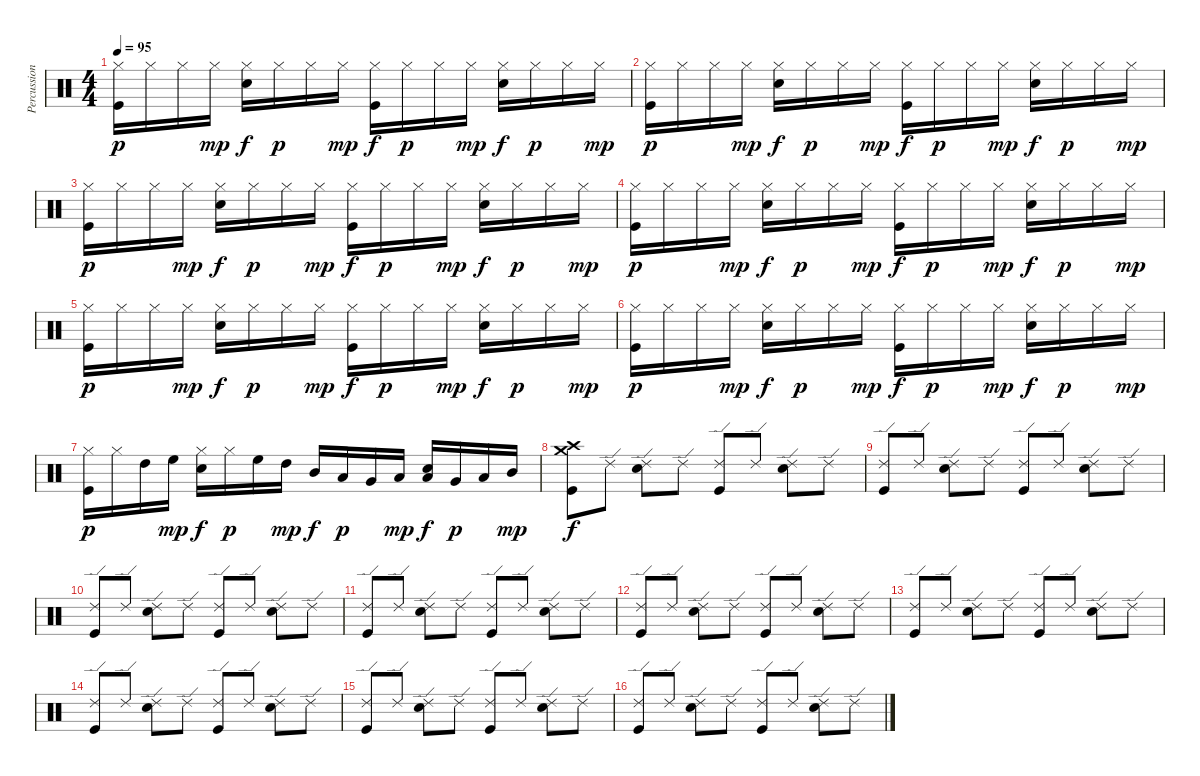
\track ("Percussion" "Percussion") {instrument percussion}
\staff {score}
\articulation defaults
\ts (4 4)
\tempo 95
\clef neutral
\ks c
("Hi-Hat (closed)" "Kick (hit)").16{dy p} "Hi-Hat (closed)".16 "Hi-Hat (closed)".16 "Hi-Hat (closed)".16{dy mp} ("Hi-Hat (closed)" "Snare (hit) 2").16{dy f} "Hi-Hat (closed)".16{dy p} "Hi-Hat (closed)".16 "Hi-Hat (closed)".16{dy mp} ("Hi-Hat (closed)" "Kick (hit)").16{dy f} "Hi-Hat (closed)".16{dy p} "Hi-Hat (closed)".16 "Hi-Hat (closed)".16{dy mp} ("Hi-Hat (closed)" "Snare (hit) 2").16{dy f} "Hi-Hat (closed)".16{dy p} "Hi-Hat (closed)".16 "Hi-Hat (closed)".16{dy mp} |
("Hi-Hat (closed)" "Kick (hit)").16{dy p} "Hi-Hat (closed)".16 "Hi-Hat (closed)".16 "Hi-Hat (closed)".16{dy mp} ("Hi-Hat (closed)" "Snare (hit) 2").16{dy f} "Hi-Hat (closed)".16{dy p} "Hi-Hat (closed)".16 "Hi-Hat (closed)".16{dy mp} ("Hi-Hat (closed)" "Kick (hit)").16{dy f} "Hi-Hat (closed)".16{dy p} "Hi-Hat (closed)".16 "Hi-Hat (closed)".16{dy mp} ("Hi-Hat (closed)" "Snare (hit) 2").16{dy f} "Hi-Hat (closed)".16{dy p} "Hi-Hat (closed)".16 "Hi-Hat (closed)".16{dy mp} |
("Hi-Hat (closed)" "Kick (hit)").16{dy p} "Hi-Hat (closed)".16 "Hi-Hat (closed)".16 "Hi-Hat (closed)".16{dy mp} ("Hi-Hat (closed)" "Snare (hit) 2").16{dy f} "Hi-Hat (closed)".16{dy p} "Hi-Hat (closed)".16 "Hi-Hat (closed)".16{dy mp} ("Hi-Hat (closed)" "Kick (hit)").16{dy f} "Hi-Hat (closed)".16{dy p} "Hi-Hat (closed)".16 "Hi-Hat (closed)".16{dy mp} ("Hi-Hat (closed)" "Snare (hit) 2").16{dy f} "Hi-Hat (closed)".16{dy p} "Hi-Hat (closed)".16 "Hi-Hat (closed)".16{dy mp} |
("Hi-Hat (closed)" "Kick (hit)").16{dy p} "Hi-Hat (closed)".16 "Hi-Hat (closed)".16 "Hi-Hat (closed)".16{dy mp} ("Hi-Hat (closed)" "Snare (hit) 2").16{dy f} "Hi-Hat (closed)".16{dy p} "Hi-Hat (closed)".16 "Hi-Hat (closed)".16{dy mp} ("Hi-Hat (closed)" "Kick (hit)").16{dy f} "Hi-Hat (closed)".16{dy p} "Hi-Hat (closed)".16 "Hi-Hat (closed)".16{dy mp} ("Hi-Hat (closed)" "Snare (hit) 2").16{dy f} "Hi-Hat (closed)".16{dy p} "Hi-Hat (closed)".16 "Hi-Hat (closed)".16{dy mp} |
("Hi-Hat (closed)" "Kick (hit)").16{dy p} "Hi-Hat (closed)".16 "Hi-Hat (closed)".16 "Hi-Hat (closed)".16{dy mp} ("Hi-Hat (closed)" "Snare (hit) 2").16{dy f} "Hi-Hat (closed)".16{dy p} "Hi-Hat (closed)".16 "Hi-Hat (closed)".16{dy mp} ("Hi-Hat (closed)" "Kick (hit)").16{dy f} "Hi-Hat (closed)".16{dy p} "Hi-Hat (closed)".16 "Hi-Hat (closed)".16{dy mp} ("Hi-Hat (closed)" "Snare (hit) 2").16{dy f} "Hi-Hat (closed)".16{dy p} "Hi-Hat (closed)".16 "Hi-Hat (closed)".16{dy mp} |
("Hi-Hat (closed)" "Kick (hit)").16{dy p} "Hi-Hat (closed)".16 "Hi-Hat (closed)".16 "Hi-Hat (closed)".16{dy mp} ("Hi-Hat (closed)" "Snare (hit) 2").16{dy f} "Hi-Hat (closed)".16{dy p} "Hi-Hat (closed)".16 "Hi-Hat (closed)".16{dy mp} ("Hi-Hat (closed)" "Kick (hit)").16{dy f} "Hi-Hat (closed)".16{dy p} "Hi-Hat (closed)".16 "Hi-Hat (closed)".16{dy mp} ("Hi-Hat (closed)" "Snare (hit) 2").16{dy f} "Hi-Hat (closed)".16{dy p} "Hi-Hat (closed)".16 "Hi-Hat (closed)".16{dy mp} |
("Hi-Hat (closed)" "Kick (hit)").16{dy p} "Hi-Hat (closed)".16 "High Tom (hit)".16 "High Floor Tom (hit)".16{dy mp} ("Hi-Hat (closed)" "Snare (hit) 2").16{dy f} "Hi-Hat (closed)".16{dy p} "High Floor Tom (hit)".16 "High Tom (hit)".16{dy mp} "Mid Tom (hit)".16{dy f} "Low Tom (hit)".16{dy p} "Very Low Tom (hit)".16 "Low Floor Tom (hit)".16{dy mp} ("Low Floor Tom (hit)" "Snare (hit) 2").16{dy f} "Very Low Tom (hit)".16{dy p} "Low Tom (hit)".16 "Mid Tom (hit)".16{dy mp} |
("Crash medium (hit)" "Crash high (hit)" "Kick (hit)").8{dy f} "Ride (edge) 2".8 ("Ride (edge) 2" "Electric Snare (hit)").8 "Ride (edge) 2".8 ("Ride (edge) 2" "Kick (hit)").8 "Ride (edge) 2".8 ("Ride (edge) 2" "Electric Snare (hit)").8 "Ride (edge) 2".8 |
("Ride (edge) 2" "Kick (hit)").8 "Ride (edge) 2".8 ("Ride (edge) 2" "Electric Snare (hit)").8 "Ride (edge) 2".8 ("Ride (edge) 2" "Kick (hit)").8 "Ride (edge) 2".8 ("Ride (edge) 2" "Electric Snare (hit)").8 "Ride (edge) 2".8 |
("Ride (edge) 2" "Kick (hit)").8 "Ride (edge) 2".8 ("Ride (edge) 2" "Electric Snare (hit)").8 "Ride (edge) 2".8 ("Ride (edge) 2" "Kick (hit)").8 "Ride (edge) 2".8 ("Ride (edge) 2" "Electric Snare (hit)").8 "Ride (edge) 2".8 |
("Ride (edge) 2" "Kick (hit)").8 "Ride (edge) 2".8 ("Ride (edge) 2" "Electric Snare (hit)").8 "Ride (edge) 2".8 ("Ride (edge) 2" "Kick (hit)").8 "Ride (edge) 2".8 ("Ride (edge) 2" "Electric Snare (hit)").8 "Ride (edge) 2".8 |
("Ride (edge) 2" "Kick (hit)").8 "Ride (edge) 2".8 ("Ride (edge) 2" "Electric Snare (hit)").8 "Ride (edge) 2".8 ("Ride (edge) 2" "Kick (hit)").8 "Ride (edge) 2".8 ("Ride (edge) 2" "Electric Snare (hit)").8 "Ride (edge) 2".8 |
("Ride (edge) 2" "Kick (hit)").8 "Ride (edge) 2".8 ("Ride (edge) 2" "Electric Snare (hit)").8 "Ride (edge) 2".8 ("Ride (edge) 2" "Kick (hit)").8 "Ride (edge) 2".8 ("Ride (edge) 2" "Electric Snare (hit)").8 "Ride (edge) 2".8 |
("Ride (edge) 2" "Kick (hit)").8 "Ride (edge) 2".8 ("Ride (edge) 2" "Electric Snare (hit)").8 "Ride (edge) 2".8 ("Ride (edge) 2" "Kick (hit)").8 "Ride (edge) 2".8 ("Ride (edge) 2" "Electric Snare (hit)").8 "Ride (edge) 2".8 |
("Ride (edge) 2" "Kick (hit)").8 "Ride (edge) 2".8 ("Ride (edge) 2" "Electric Snare (hit)").8 "Ride (edge) 2".8 ("Ride (edge) 2" "Kick (hit)").8 "Ride (edge) 2".8 ("Ride (edge) 2" "Electric Snare (hit)").8 "Ride (edge) 2".8 |
("Ride (edge) 2" "Kick (hit)").8 "Ride (edge) 2".8 ("Ride (edge) 2" "Electric Snare (hit)").8 "Ride (edge) 2".8 ("Ride (edge) 2" "Kick (hit)").8 "Ride (edge) 2".8 ("Ride (edge) 2" "Electric Snare (hit)").8 "Ride (edge) 2".8
